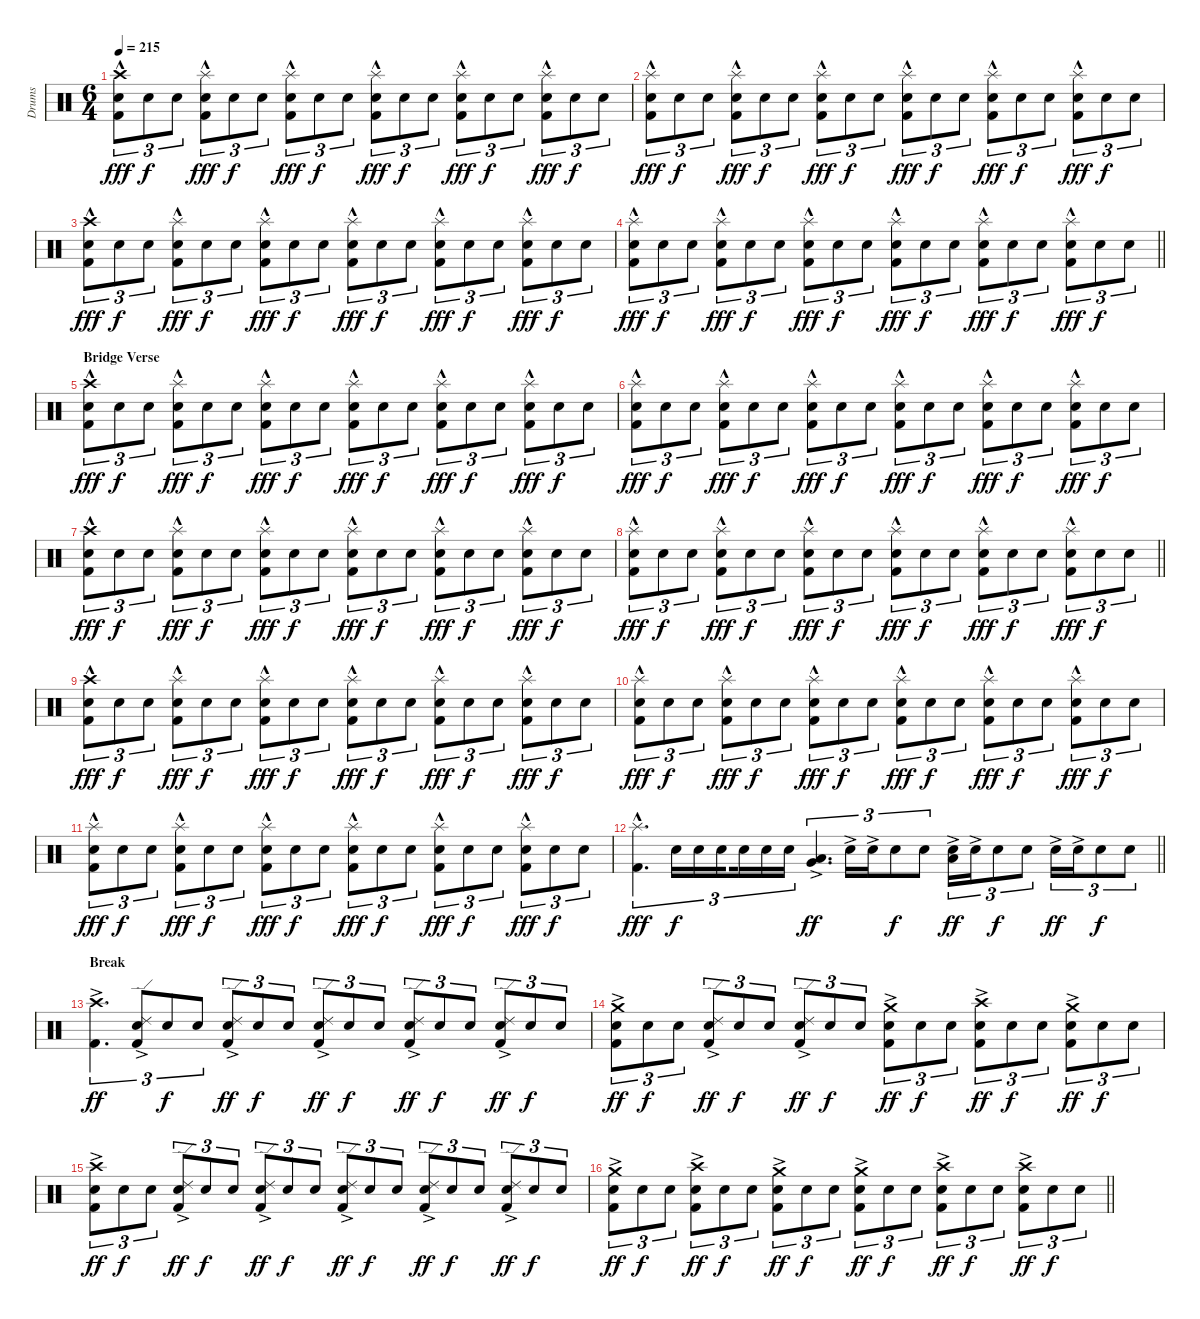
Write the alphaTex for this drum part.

\track ("Drums" "Drums") {instrument percussion}
\staff {score}
\articulation defaults
\ts (6 4)
\section ("" "")
\tempo 215
\clef neutral
\ks c
("Kick (hit) 2"{hac} "Snare (hit) 2" "Crash high (hit)").8{tu (3 2) dy fff volume 13} "Snare (hit) 2".8{tu (3 2) dy f} "Snare (hit) 2".8{tu (3 2)} ("Kick (hit) 2"{hac} "Snare (hit) 2" "Splash (hit)").8{tu (3 2) dy fff} "Snare (hit) 2".8{tu (3 2) dy f} "Snare (hit) 2".8{tu (3 2)} ("Kick (hit) 2"{hac} "Snare (hit) 2" "Splash (hit)").8{tu (3 2) dy fff} "Snare (hit) 2".8{tu (3 2) dy f} "Snare (hit) 2".8{tu (3 2)} ("Kick (hit) 2"{hac} "Snare (hit) 2" "Splash (hit)").8{tu (3 2) dy fff} "Snare (hit) 2".8{tu (3 2) dy f} "Snare (hit) 2".8{tu (3 2)} ("Kick (hit) 2"{hac} "Snare (hit) 2" "Splash (hit)").8{tu (3 2) dy fff} "Snare (hit) 2".8{tu (3 2) dy f} "Snare (hit) 2".8{tu (3 2)} ("Kick (hit) 2"{hac} "Snare (hit) 2" "Splash (hit)").8{tu (3 2) dy fff} "Snare (hit) 2".8{tu (3 2) dy f} "Snare (hit) 2".8{tu (3 2)} |
("Kick (hit) 2"{hac} "Snare (hit) 2" "Splash (hit)").8{tu (3 2) dy fff} "Snare (hit) 2".8{tu (3 2) dy f} "Snare (hit) 2".8{tu (3 2)} ("Kick (hit) 2"{hac} "Snare (hit) 2" "Splash (hit)").8{tu (3 2) dy fff} "Snare (hit) 2".8{tu (3 2) dy f} "Snare (hit) 2".8{tu (3 2)} ("Kick (hit) 2"{hac} "Snare (hit) 2" "Splash (hit)").8{tu (3 2) dy fff} "Snare (hit) 2".8{tu (3 2) dy f} "Snare (hit) 2".8{tu (3 2)} ("Kick (hit) 2"{hac} "Snare (hit) 2" "Splash (hit)").8{tu (3 2) dy fff} "Snare (hit) 2".8{tu (3 2) dy f} "Snare (hit) 2".8{tu (3 2)} ("Kick (hit) 2"{hac} "Snare (hit) 2" "Splash (hit)").8{tu (3 2) dy fff} "Snare (hit) 2".8{tu (3 2) dy f} "Snare (hit) 2".8{tu (3 2)} ("Kick (hit) 2"{hac} "Snare (hit) 2" "Splash (hit)").8{tu (3 2) dy fff} "Snare (hit) 2".8{tu (3 2) dy f} "Snare (hit) 2".8{tu (3 2)} |
("Kick (hit) 2"{hac} "Snare (hit) 2" "Crash high (hit)").8{tu (3 2) dy fff} "Snare (hit) 2".8{tu (3 2) dy f} "Snare (hit) 2".8{tu (3 2)} ("Kick (hit) 2"{hac} "Snare (hit) 2" "Splash (hit)").8{tu (3 2) dy fff} "Snare (hit) 2".8{tu (3 2) dy f} "Snare (hit) 2".8{tu (3 2)} ("Kick (hit) 2"{hac} "Snare (hit) 2" "Splash (hit)").8{tu (3 2) dy fff} "Snare (hit) 2".8{tu (3 2) dy f} "Snare (hit) 2".8{tu (3 2)} ("Kick (hit) 2"{hac} "Snare (hit) 2" "Splash (hit)").8{tu (3 2) dy fff} "Snare (hit) 2".8{tu (3 2) dy f} "Snare (hit) 2".8{tu (3 2)} ("Kick (hit) 2"{hac} "Snare (hit) 2" "Splash (hit)").8{tu (3 2) dy fff} "Snare (hit) 2".8{tu (3 2) dy f} "Snare (hit) 2".8{tu (3 2)} ("Kick (hit) 2"{hac} "Snare (hit) 2" "Splash (hit)").8{tu (3 2) dy fff} "Snare (hit) 2".8{tu (3 2) dy f} "Snare (hit) 2".8{tu (3 2)} |
\barLineRight lightlight
("Kick (hit) 2"{hac} "Snare (hit) 2" "Splash (hit)").8{tu (3 2) dy fff} "Snare (hit) 2".8{tu (3 2) dy f} "Snare (hit) 2".8{tu (3 2)} ("Kick (hit) 2"{hac} "Snare (hit) 2" "Splash (hit)").8{tu (3 2) dy fff} "Snare (hit) 2".8{tu (3 2) dy f} "Snare (hit) 2".8{tu (3 2)} ("Kick (hit) 2"{hac} "Snare (hit) 2" "Splash (hit)").8{tu (3 2) dy fff} "Snare (hit) 2".8{tu (3 2) dy f} "Snare (hit) 2".8{tu (3 2)} ("Kick (hit) 2"{hac} "Snare (hit) 2" "Splash (hit)").8{tu (3 2) dy fff} "Snare (hit) 2".8{tu (3 2) dy f} "Snare (hit) 2".8{tu (3 2)} ("Kick (hit) 2"{hac} "Snare (hit) 2" "Splash (hit)").8{tu (3 2) dy fff} "Snare (hit) 2".8{tu (3 2) dy f} "Snare (hit) 2".8{tu (3 2)} ("Kick (hit) 2"{hac} "Snare (hit) 2" "Splash (hit)").8{tu (3 2) dy fff} "Snare (hit) 2".8{tu (3 2) dy f} "Snare (hit) 2".8{tu (3 2)} |
\section ("" "Bridge Verse")
("Kick (hit) 2"{hac} "Snare (hit) 2" "Crash high (hit)").8{tu (3 2) dy fff} "Snare (hit) 2".8{tu (3 2) dy f} "Snare (hit) 2".8{tu (3 2)} ("Kick (hit) 2"{hac} "Snare (hit) 2" "Splash (hit)").8{tu (3 2) dy fff} "Snare (hit) 2".8{tu (3 2) dy f} "Snare (hit) 2".8{tu (3 2)} ("Kick (hit) 2"{hac} "Snare (hit) 2" "Splash (hit)").8{tu (3 2) dy fff} "Snare (hit) 2".8{tu (3 2) dy f} "Snare (hit) 2".8{tu (3 2)} ("Kick (hit) 2"{hac} "Snare (hit) 2" "Splash (hit)").8{tu (3 2) dy fff} "Snare (hit) 2".8{tu (3 2) dy f} "Snare (hit) 2".8{tu (3 2)} ("Kick (hit) 2"{hac} "Snare (hit) 2" "Splash (hit)").8{tu (3 2) dy fff} "Snare (hit) 2".8{tu (3 2) dy f} "Snare (hit) 2".8{tu (3 2)} ("Kick (hit) 2"{hac} "Snare (hit) 2" "Splash (hit)").8{tu (3 2) dy fff} "Snare (hit) 2".8{tu (3 2) dy f} "Snare (hit) 2".8{tu (3 2)} |
("Kick (hit) 2"{hac} "Snare (hit) 2" "Splash (hit)").8{tu (3 2) dy fff} "Snare (hit) 2".8{tu (3 2) dy f} "Snare (hit) 2".8{tu (3 2)} ("Kick (hit) 2"{hac} "Snare (hit) 2" "Splash (hit)").8{tu (3 2) dy fff} "Snare (hit) 2".8{tu (3 2) dy f} "Snare (hit) 2".8{tu (3 2)} ("Kick (hit) 2"{hac} "Snare (hit) 2" "Splash (hit)").8{tu (3 2) dy fff} "Snare (hit) 2".8{tu (3 2) dy f} "Snare (hit) 2".8{tu (3 2)} ("Kick (hit) 2"{hac} "Snare (hit) 2" "Splash (hit)").8{tu (3 2) dy fff} "Snare (hit) 2".8{tu (3 2) dy f} "Snare (hit) 2".8{tu (3 2)} ("Kick (hit) 2"{hac} "Snare (hit) 2" "Splash (hit)").8{tu (3 2) dy fff} "Snare (hit) 2".8{tu (3 2) dy f} "Snare (hit) 2".8{tu (3 2)} ("Kick (hit) 2"{hac} "Snare (hit) 2" "Splash (hit)").8{tu (3 2) dy fff} "Snare (hit) 2".8{tu (3 2) dy f} "Snare (hit) 2".8{tu (3 2)} |
("Kick (hit) 2"{hac} "Snare (hit) 2" "Crash high (hit)").8{tu (3 2) dy fff} "Snare (hit) 2".8{tu (3 2) dy f} "Snare (hit) 2".8{tu (3 2)} ("Kick (hit) 2"{hac} "Snare (hit) 2" "Splash (hit)").8{tu (3 2) dy fff} "Snare (hit) 2".8{tu (3 2) dy f} "Snare (hit) 2".8{tu (3 2)} ("Kick (hit) 2"{hac} "Snare (hit) 2" "Splash (hit)").8{tu (3 2) dy fff} "Snare (hit) 2".8{tu (3 2) dy f} "Snare (hit) 2".8{tu (3 2)} ("Kick (hit) 2"{hac} "Snare (hit) 2" "Splash (hit)").8{tu (3 2) dy fff} "Snare (hit) 2".8{tu (3 2) dy f} "Snare (hit) 2".8{tu (3 2)} ("Kick (hit) 2"{hac} "Snare (hit) 2" "Splash (hit)").8{tu (3 2) dy fff} "Snare (hit) 2".8{tu (3 2) dy f} "Snare (hit) 2".8{tu (3 2)} ("Kick (hit) 2"{hac} "Snare (hit) 2" "Splash (hit)").8{tu (3 2) dy fff} "Snare (hit) 2".8{tu (3 2) dy f} "Snare (hit) 2".8{tu (3 2)} |
\barLineRight lightlight
("Kick (hit) 2"{hac} "Snare (hit) 2" "Splash (hit)").8{tu (3 2) dy fff} "Snare (hit) 2".8{tu (3 2) dy f} "Snare (hit) 2".8{tu (3 2)} ("Kick (hit) 2"{hac} "Snare (hit) 2" "Splash (hit)").8{tu (3 2) dy fff} "Snare (hit) 2".8{tu (3 2) dy f} "Snare (hit) 2".8{tu (3 2)} ("Kick (hit) 2"{hac} "Snare (hit) 2" "Splash (hit)").8{tu (3 2) dy fff} "Snare (hit) 2".8{tu (3 2) dy f} "Snare (hit) 2".8{tu (3 2)} ("Kick (hit) 2"{hac} "Snare (hit) 2" "Splash (hit)").8{tu (3 2) dy fff} "Snare (hit) 2".8{tu (3 2) dy f} "Snare (hit) 2".8{tu (3 2)} ("Kick (hit) 2"{hac} "Snare (hit) 2" "Splash (hit)").8{tu (3 2) dy fff} "Snare (hit) 2".8{tu (3 2) dy f} "Snare (hit) 2".8{tu (3 2)} ("Kick (hit) 2"{hac} "Snare (hit) 2" "Splash (hit)").8{tu (3 2) dy fff} "Snare (hit) 2".8{tu (3 2) dy f} "Snare (hit) 2".8{tu (3 2)} |
\section ("" "")
("Kick (hit) 2"{hac} "Snare (hit) 2" "Crash high (hit)").8{tu (3 2) dy fff} "Snare (hit) 2".8{tu (3 2) dy f} "Snare (hit) 2".8{tu (3 2)} ("Kick (hit) 2"{hac} "Snare (hit) 2" "Splash (hit)").8{tu (3 2) dy fff} "Snare (hit) 2".8{tu (3 2) dy f} "Snare (hit) 2".8{tu (3 2)} ("Kick (hit) 2"{hac} "Snare (hit) 2" "Splash (hit)").8{tu (3 2) dy fff} "Snare (hit) 2".8{tu (3 2) dy f} "Snare (hit) 2".8{tu (3 2)} ("Kick (hit) 2"{hac} "Snare (hit) 2" "Splash (hit)").8{tu (3 2) dy fff} "Snare (hit) 2".8{tu (3 2) dy f} "Snare (hit) 2".8{tu (3 2)} ("Kick (hit) 2"{hac} "Snare (hit) 2" "Splash (hit)").8{tu (3 2) dy fff} "Snare (hit) 2".8{tu (3 2) dy f} "Snare (hit) 2".8{tu (3 2)} ("Kick (hit) 2"{hac} "Snare (hit) 2" "Splash (hit)").8{tu (3 2) dy fff} "Snare (hit) 2".8{tu (3 2) dy f} "Snare (hit) 2".8{tu (3 2)} |
("Kick (hit) 2"{hac} "Snare (hit) 2" "Splash (hit)").8{tu (3 2) dy fff} "Snare (hit) 2".8{tu (3 2) dy f} "Snare (hit) 2".8{tu (3 2)} ("Kick (hit) 2"{hac} "Snare (hit) 2" "Splash (hit)").8{tu (3 2) dy fff} "Snare (hit) 2".8{tu (3 2) dy f} "Snare (hit) 2".8{tu (3 2)} ("Kick (hit) 2"{hac} "Snare (hit) 2" "Splash (hit)").8{tu (3 2) dy fff} "Snare (hit) 2".8{tu (3 2) dy f} "Snare (hit) 2".8{tu (3 2)} ("Kick (hit) 2"{hac} "Snare (hit) 2" "Splash (hit)").8{tu (3 2) dy fff} "Snare (hit) 2".8{tu (3 2) dy f} "Snare (hit) 2".8{tu (3 2)} ("Kick (hit) 2"{hac} "Snare (hit) 2" "Splash (hit)").8{tu (3 2) dy fff} "Snare (hit) 2".8{tu (3 2) dy f} "Snare (hit) 2".8{tu (3 2)} ("Kick (hit) 2"{hac} "Snare (hit) 2" "Splash (hit)").8{tu (3 2) dy fff} "Snare (hit) 2".8{tu (3 2) dy f} "Snare (hit) 2".8{tu (3 2)} |
("Kick (hit) 2"{hac} "Snare (hit) 2" "Splash (hit)").8{tu (3 2) dy fff} "Snare (hit) 2".8{tu (3 2) dy f} "Snare (hit) 2".8{tu (3 2)} ("Kick (hit) 2"{hac} "Snare (hit) 2" "Splash (hit)").8{tu (3 2) dy fff} "Snare (hit) 2".8{tu (3 2) dy f} "Snare (hit) 2".8{tu (3 2)} ("Kick (hit) 2"{hac} "Snare (hit) 2" "Splash (hit)").8{tu (3 2) dy fff} "Snare (hit) 2".8{tu (3 2) dy f} "Snare (hit) 2".8{tu (3 2)} ("Kick (hit) 2"{hac} "Snare (hit) 2" "Splash (hit)").8{tu (3 2) dy fff} "Snare (hit) 2".8{tu (3 2) dy f} "Snare (hit) 2".8{tu (3 2)} ("Kick (hit) 2"{hac} "Snare (hit) 2" "Splash (hit)").8{tu (3 2) dy fff} "Snare (hit) 2".8{tu (3 2) dy f} "Snare (hit) 2".8{tu (3 2)} ("Kick (hit) 2"{hac} "Snare (hit) 2" "Splash (hit)").8{tu (3 2) dy fff} "Snare (hit) 2".8{tu (3 2) dy f} "Snare (hit) 2".8{tu (3 2)} |
\barLineRight lightlight
("Kick (hit) 2"{hac} "Splash (hit)").4{d tu (3 2) dy fff} "Snare (hit) 2".16{tu (3 2) dy f} "Snare (hit) 2".16{tu (3 2)} "Snare (hit) 2".16{tu (3 2) beam splitsecondary} "Snare (hit) 2".16{tu (3 2)} "Snare (hit) 2".16{tu (3 2)} "Snare (hit) 2".16{tu (3 2)} ("Low Tom (hit)"{ac} "Very Low Tom (hit)"{ac}).4{d tu (3 2) dy ff} "Snare (hit) 2"{ac}.16{tu (3 2)} "Snare (hit) 2"{ac}.16{tu (3 2)} "Snare (hit) 2".8{tu (3 2) dy f} "Snare (hit) 2".8{tu (3 2)} ("Snare (hit) 2"{ac} "Low Tom (hit)"{ac}).16{tu (3 2) dy ff} "Snare (hit) 2"{ac}.16{tu (3 2)} "Snare (hit) 2".8{tu (3 2) dy f} "Snare (hit) 2".8{tu (3 2)} "Snare (hit) 2"{ac}.16{tu (3 2) dy ff} "Snare (hit) 2"{ac}.16{tu (3 2)} "Snare (hit) 2".8{tu (3 2) dy f} "Snare (hit) 2".8{tu (3 2)} |
\section ("" "Break")
("Kick (hit) 2"{ac} "Crash high (hit)").4{d tu (3 2) dy ff} ("Kick (hit) 2"{ac} "Snare (hit) 2" "Ride (edge) 2").8{tu (3 2)} "Snare (hit) 2".8{tu (3 2) dy f} "Snare (hit) 2".8{tu (3 2)} ("Kick (hit) 2"{ac} "Snare (hit) 2" "Ride (edge) 2").8{tu (3 2) dy ff} "Snare (hit) 2".8{tu (3 2) dy f} "Snare (hit) 2".8{tu (3 2)} ("Kick (hit) 2"{ac} "Snare (hit) 2" "Ride (edge) 2").8{tu (3 2) dy ff} "Snare (hit) 2".8{tu (3 2) dy f} "Snare (hit) 2".8{tu (3 2)} ("Kick (hit) 2"{ac} "Snare (hit) 2" "Ride (edge) 2").8{tu (3 2) dy ff} "Snare (hit) 2".8{tu (3 2) dy f} "Snare (hit) 2".8{tu (3 2)} ("Kick (hit) 2"{ac} "Snare (hit) 2" "Ride (edge) 2").8{tu (3 2) dy ff} "Snare (hit) 2".8{tu (3 2) dy f} "Snare (hit) 2".8{tu (3 2)} |
("Kick (hit) 2"{ac} "Snare (hit) 2" "Crash medium (hit)").8{tu (3 2) dy ff} "Snare (hit) 2".8{tu (3 2) dy f} "Snare (hit) 2".8{tu (3 2)} ("Kick (hit) 2"{ac} "Snare (hit) 2" "Ride (edge) 2").8{tu (3 2) dy ff} "Snare (hit) 2".8{tu (3 2) dy f} "Snare (hit) 2".8{tu (3 2)} ("Kick (hit) 2"{ac} "Snare (hit) 2" "Ride (edge) 2").8{tu (3 2) dy ff} "Snare (hit) 2".8{tu (3 2) dy f} "Snare (hit) 2".8{tu (3 2)} ("Kick (hit) 2"{ac} "Snare (hit) 2" "Crash medium (hit)").8{tu (3 2) dy ff} "Snare (hit) 2".8{tu (3 2) dy f} "Snare (hit) 2".8{tu (3 2)} ("Kick (hit) 2"{ac} "Snare (hit) 2" "Crash high (hit)").8{tu (3 2) dy ff} "Snare (hit) 2".8{tu (3 2) dy f} "Snare (hit) 2".8{tu (3 2)} ("Kick (hit) 2"{ac} "Snare (hit) 2" "Crash medium (hit)").8{tu (3 2) dy ff} "Snare (hit) 2".8{tu (3 2) dy f} "Snare (hit) 2".8{tu (3 2)} |
("Kick (hit) 2"{ac} "Snare (hit) 2" "Crash high (hit)").8{tu (3 2) dy ff} "Snare (hit) 2".8{tu (3 2) dy f} "Snare (hit) 2".8{tu (3 2)} ("Kick (hit) 2"{ac} "Snare (hit) 2" "Ride (edge) 2").8{tu (3 2) dy ff} "Snare (hit) 2".8{tu (3 2) dy f} "Snare (hit) 2".8{tu (3 2)} ("Kick (hit) 2"{ac} "Snare (hit) 2" "Ride (edge) 2").8{tu (3 2) dy ff} "Snare (hit) 2".8{tu (3 2) dy f} "Snare (hit) 2".8{tu (3 2)} ("Kick (hit) 2"{ac} "Snare (hit) 2" "Ride (edge) 2").8{tu (3 2) dy ff} "Snare (hit) 2".8{tu (3 2) dy f} "Snare (hit) 2".8{tu (3 2)} ("Kick (hit) 2"{ac} "Snare (hit) 2" "Ride (edge) 2").8{tu (3 2) dy ff} "Snare (hit) 2".8{tu (3 2) dy f} "Snare (hit) 2".8{tu (3 2)} ("Kick (hit) 2"{ac} "Snare (hit) 2" "Ride (edge) 2").8{tu (3 2) dy ff} "Snare (hit) 2".8{tu (3 2) dy f} "Snare (hit) 2".8{tu (3 2)} |
\barLineRight lightlight
("Kick (hit) 2"{ac} "Snare (hit) 2" "Crash medium (hit)").8{tu (3 2) dy ff} "Snare (hit) 2".8{tu (3 2) dy f} "Snare (hit) 2".8{tu (3 2)} ("Kick (hit) 2"{ac} "Snare (hit) 2" "Crash high (hit)").8{tu (3 2) dy ff} "Snare (hit) 2".8{tu (3 2) dy f} "Snare (hit) 2".8{tu (3 2)} ("Kick (hit) 2"{ac} "Snare (hit) 2" "Crash medium (hit)").8{tu (3 2) dy ff} "Snare (hit) 2".8{tu (3 2) dy f} "Snare (hit) 2".8{tu (3 2)} ("Kick (hit) 2"{ac} "Snare (hit) 2" "Crash medium (hit)").8{tu (3 2) dy ff} "Snare (hit) 2".8{tu (3 2) dy f} "Snare (hit) 2".8{tu (3 2)} ("Kick (hit) 2"{ac} "Snare (hit) 2" "Crash high (hit)").8{tu (3 2) dy ff} "Snare (hit) 2".8{tu (3 2) dy f} "Snare (hit) 2".8{tu (3 2)} ("Kick (hit) 2"{ac} "Snare (hit) 2" "Crash high (hit)").8{tu (3 2) dy ff} "Snare (hit) 2".8{tu (3 2) dy f} "Snare (hit) 2".8{tu (3 2)}
